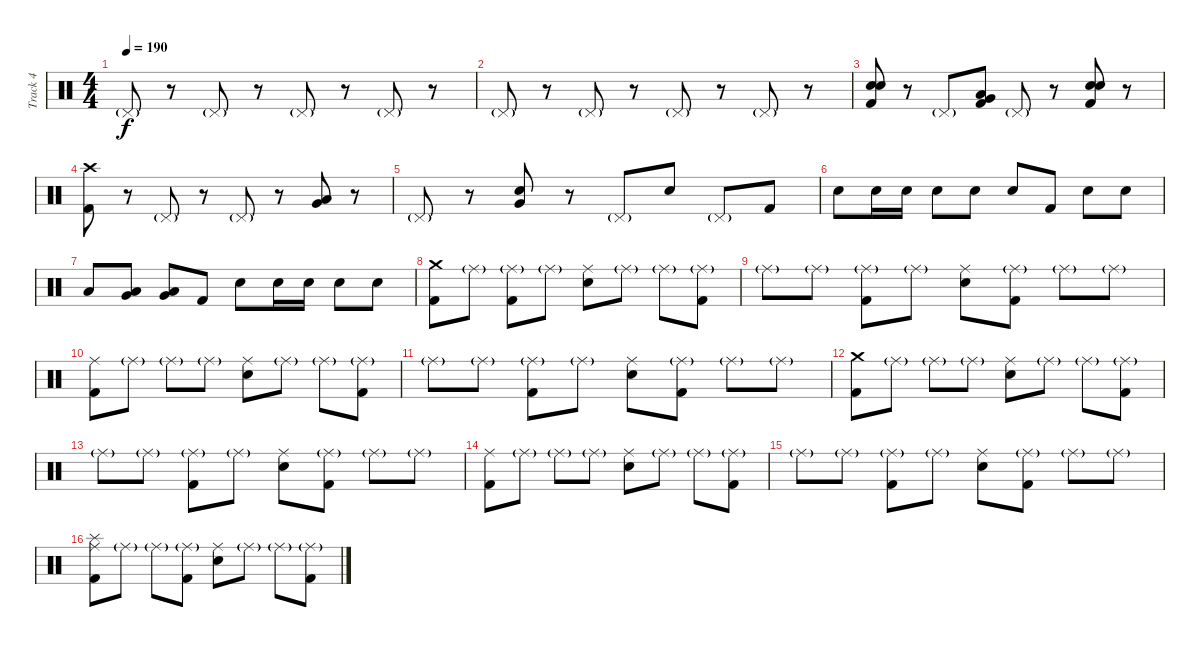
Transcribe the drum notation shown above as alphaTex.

\track ("Track 4" "Track 4") {instrument percussion}
\staff {score}
\articulation defaults
\ts (4 4)
\tempo 190
\clef neutral
\ks c "Pedal Hi-Hat (hit)"{g}.8{dy f}
r.8 "Pedal Hi-Hat (hit)"{g}.8 r.8 "Pedal Hi-Hat (hit)"{g}.8 r.8 "Pedal Hi-Hat (hit)"{g}.8 r.8 |
"Pedal Hi-Hat (hit)"{g}.8 r.8 "Pedal Hi-Hat (hit)"{g}.8 r.8 "Pedal Hi-Hat (hit)"{g}.8 r.8 "Pedal Hi-Hat (hit)"{g}.8 r.8 |
("Electric Snare (hit)" "Electric Snare (hit)" "Kick (hit) 2").8 r.8 "Pedal Hi-Hat (hit)"{g}.8 ("Very Low Tom (hit)" "Low Floor Tom (hit)" "Kick (hit) 2").8 "Pedal Hi-Hat (hit)"{g}.8 r.8 ("Electric Snare (hit)" "Electric Snare (hit)" "Kick (hit) 2").8 r.8 |
("Crash high (hit)" "Kick (hit) 2").8 r.8 "Pedal Hi-Hat (hit)"{g}.8 r.8 "Pedal Hi-Hat (hit)"{g}.8 r.8 ("Low Tom (hit)" "Very Low Tom (hit)").8 r.8 |
"Pedal Hi-Hat (hit)"{g}.8 r.8 ("Very Low Tom (hit)" "Electric Snare (hit)").8 r.8 "Pedal Hi-Hat (hit)"{g}.8 "Electric Snare (hit)".8 "Pedal Hi-Hat (hit)"{g}.8 "Kick (hit) 2".8 |
"Electric Snare (hit)".8 "Electric Snare (hit)".16 "Electric Snare (hit)".16 "Electric Snare (hit)".8 "Electric Snare (hit)".8 "Electric Snare (hit)".8 "Kick (hit) 2".8 "Electric Snare (hit)".8 "Electric Snare (hit)".8 |
"Low Floor Tom (hit)".8 ("Very Low Tom (hit)" "Low Tom (hit)").8 ("Very Low Tom (hit)" "Low Tom (hit)").8 "Kick (hit) 2".8 "Electric Snare (hit)".8 "Electric Snare (hit)".16 "Electric Snare (hit)".16 "Electric Snare (hit)".8 "Electric Snare (hit)".8 |
("Crash medium (hit)" "Kick (hit) 2").8 "Ride (middle)"{g}.8 ("Ride (middle)"{g} "Kick (hit) 2").8 "Ride (middle)"{g}.8 ("Ride (middle)" "Electric Snare (hit)").8 "Ride (middle)"{g}.8 "Ride (middle)"{g}.8 ("Ride (middle)"{g} "Kick (hit) 2").8 |
"Ride (middle)"{g}.8 "Ride (middle)"{g}.8 ("Ride (middle)"{g} "Kick (hit) 2").8 "Ride (middle)"{g}.8 ("Ride (middle)" "Electric Snare (hit)").8 ("Ride (middle)"{g} "Kick (hit) 2").8 "Ride (middle)"{g}.8 "Ride (middle)"{g}.8 |
("Ride (middle)" "Kick (hit) 2").8 "Ride (middle)"{g}.8 "Ride (middle)"{g}.8 "Ride (middle)"{g}.8 ("Ride (middle)" "Electric Snare (hit)").8 "Ride (middle)"{g}.8 "Ride (middle)"{g}.8 ("Ride (middle)"{g} "Kick (hit) 2").8 |
"Ride (middle)"{g}.8 "Ride (middle)"{g}.8 ("Ride (middle)"{g} "Kick (hit) 2").8 "Ride (middle)"{g}.8 ("Ride (middle)" "Electric Snare (hit)").8 ("Ride (middle)"{g} "Kick (hit) 2").8 "Ride (middle)"{g}.8 "Ride (middle)"{g}.8 |
("Crash medium (hit)" "Kick (hit) 2").8 "Ride (middle)"{g}.8 "Ride (middle)"{g}.8 "Ride (middle)"{g}.8 ("Ride (middle)" "Electric Snare (hit)").8 "Ride (middle)"{g}.8 "Ride (middle)"{g}.8 ("Ride (middle)"{g} "Kick (hit) 2").8 |
"Ride (middle)"{g}.8 "Ride (middle)"{g}.8 ("Ride (middle)"{g} "Kick (hit) 2").8 "Ride (middle)"{g}.8 ("Ride (middle)" "Electric Snare (hit)").8 ("Ride (middle)"{g} "Kick (hit) 2").8 "Ride (middle)"{g}.8 "Ride (middle)"{g}.8 |
("Ride (middle)" "Kick (hit) 2").8 "Ride (middle)"{g}.8 "Ride (middle)"{g}.8 "Ride (middle)"{g}.8 ("Ride (middle)" "Electric Snare (hit)").8 "Ride (middle)"{g}.8 "Ride (middle)"{g}.8 ("Ride (middle)"{g} "Kick (hit) 2").8 |
"Ride (middle)"{g}.8 "Ride (middle)"{g}.8 ("Ride (middle)"{g} "Kick (hit) 2").8 "Ride (middle)"{g}.8 ("Ride (middle)" "Electric Snare (hit)").8 ("Ride (middle)"{g} "Kick (hit) 2").8 "Ride (middle)"{g}.8 "Ride (middle)"{g}.8 |
("Splash (hit)" "Ride (middle)" "Kick (hit) 2").8 "Ride (middle)"{g}.8 "Ride (middle)"{g}.8 ("Ride (middle)"{g} "Kick (hit) 2").8 ("Ride (middle)" "Electric Snare (hit)").8 "Ride (middle)"{g}.8 "Ride (middle)"{g}.8 ("Ride (middle)"{g} "Kick (hit) 2").8
